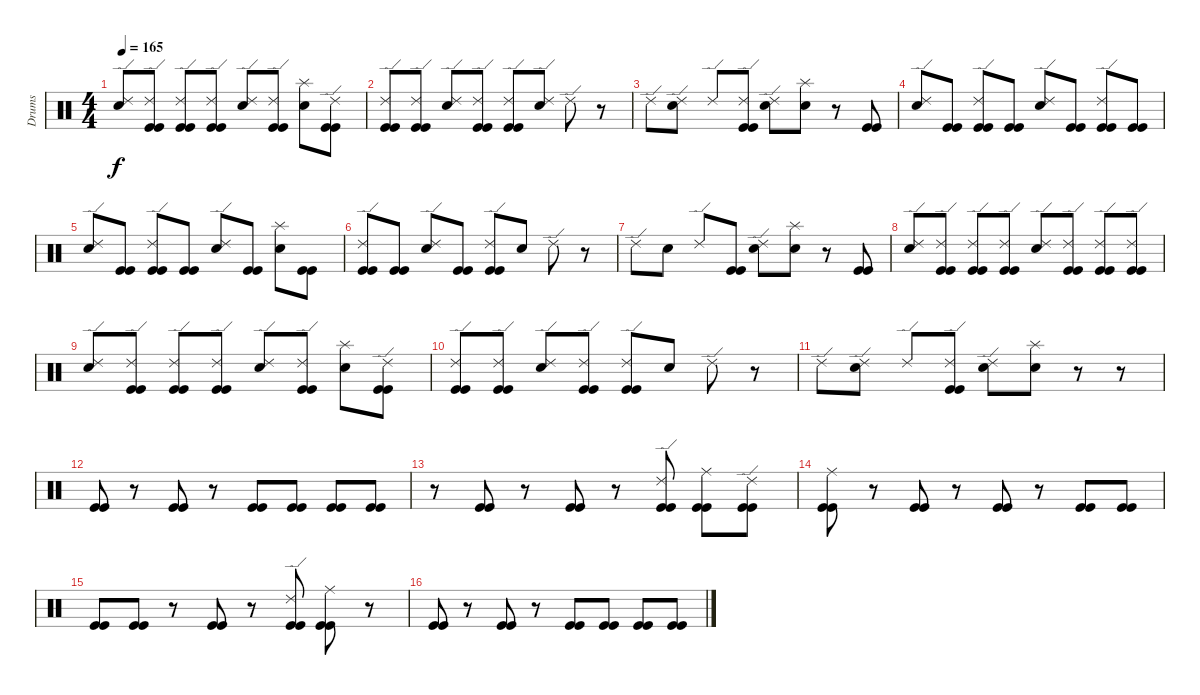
\track ("Drums" "Drums") {instrument percussion}
\staff {score}
\articulation defaults
\ts (4 4)
\tempo 165
\clef neutral
\ks c
("Ride (edge) 2" "Snare (hit) 2").8{dy f} ("Ride (edge) 2" "Kick (hit)" "Kick (hit)").8 ("Ride (edge) 2" "Kick (hit)" "Kick (hit)").8 ("Ride (edge) 2" "Kick (hit)" "Kick (hit)").8 ("Ride (edge) 2" "Snare (hit) 2").8 ("Ride (edge) 2" "Kick (hit)" "Kick (hit)").8 ("Splash (hit)" "Snare (hit) 2").8 ("Ride (edge) 2" "Kick (hit)" "Kick (hit)").8 |
("Ride (edge) 2" "Kick (hit)" "Kick (hit)").8 ("Ride (edge) 2" "Kick (hit)" "Kick (hit)").8 ("Ride (edge) 2" "Snare (hit) 2").8 ("Ride (edge) 2" "Kick (hit)" "Kick (hit)").8 ("Ride (edge) 2" "Kick (hit)" "Kick (hit)").8 ("Ride (edge) 2" "Snare (hit) 2").8 "Ride (edge) 2".8 r.8 |
"Ride (edge) 2".8 ("Ride (edge) 2" "Snare (hit) 2").8 "Ride (edge) 2".8 ("Ride (edge) 2" "Kick (hit)" "Kick (hit)").8 ("Ride (edge) 2" "Snare (hit) 2").8 ("Splash (hit)" "Snare (hit) 2").8 r.8 ("Kick (hit)" "Kick (hit)").8 |
("Ride (edge) 2" "Snare (hit) 2").8 ("Kick (hit)" "Kick (hit)").8 ("Ride (edge) 2" "Kick (hit)" "Kick (hit)").8 ("Kick (hit)" "Kick (hit)").8 ("Ride (edge) 2" "Snare (hit) 2").8 ("Kick (hit)" "Kick (hit)").8 ("Ride (edge) 2" "Kick (hit)" "Kick (hit)").8 ("Kick (hit)" "Kick (hit)").8 |
("Ride (edge) 2" "Snare (hit) 2").8 ("Kick (hit)" "Kick (hit)").8 ("Ride (edge) 2" "Kick (hit)" "Kick (hit)").8 ("Kick (hit)" "Kick (hit)").8 ("Ride (edge) 2" "Snare (hit) 2").8 ("Kick (hit)" "Kick (hit)").8 ("Splash (hit)" "Snare (hit) 2").8 ("Kick (hit)" "Kick (hit)").8 |
("Ride (edge) 2" "Kick (hit)" "Kick (hit)").8 ("Kick (hit)" "Kick (hit)").8 ("Ride (edge) 2" "Snare (hit) 2").8 ("Kick (hit)" "Kick (hit)").8 ("Ride (edge) 2" "Kick (hit)" "Kick (hit)").8 "Snare (hit) 2".8 "Ride (edge) 2".8 r.8 |
"Ride (edge) 2".8 "Snare (hit) 2".8 "Ride (edge) 2".8 ("Kick (hit)" "Kick (hit)").8 ("Ride (edge) 2" "Snare (hit) 2").8 ("Splash (hit)" "Snare (hit) 2").8 r.8 ("Kick (hit)" "Kick (hit)").8 |
("Ride (edge) 2" "Snare (hit) 2").8 ("Ride (edge) 2" "Kick (hit)" "Kick (hit)").8 ("Ride (edge) 2" "Kick (hit)" "Kick (hit)").8 ("Ride (edge) 2" "Kick (hit)" "Kick (hit)").8 ("Ride (edge) 2" "Snare (hit) 2").8 ("Ride (edge) 2" "Kick (hit)" "Kick (hit)").8 ("Ride (edge) 2" "Kick (hit)" "Kick (hit)").8 ("Ride (edge) 2" "Kick (hit)" "Kick (hit)").8 |
("Ride (edge) 2" "Snare (hit) 2").8 ("Ride (edge) 2" "Kick (hit)" "Kick (hit)").8 ("Ride (edge) 2" "Kick (hit)" "Kick (hit)").8 ("Ride (edge) 2" "Kick (hit)" "Kick (hit)").8 ("Ride (edge) 2" "Snare (hit) 2").8 ("Ride (edge) 2" "Kick (hit)" "Kick (hit)").8 ("Splash (hit)" "Snare (hit) 2").8 ("Ride (edge) 2" "Kick (hit)" "Kick (hit)").8 |
("Ride (edge) 2" "Kick (hit)" "Kick (hit)").8 ("Ride (edge) 2" "Kick (hit)" "Kick (hit)").8 ("Ride (edge) 2" "Snare (hit) 2").8 ("Ride (edge) 2" "Kick (hit)" "Kick (hit)").8 ("Ride (edge) 2" "Kick (hit)" "Kick (hit)").8 "Snare (hit) 2".8 "Ride (edge) 2".8 r.8 |
"Ride (edge) 2".8 ("Ride (edge) 2" "Snare (hit) 2").8 "Ride (edge) 2".8 ("Ride (edge) 2" "Kick (hit)" "Kick (hit)").8 ("Ride (edge) 2" "Snare (hit) 2").8 ("Splash (hit)" "Snare (hit) 2").8 r.8 r.8 |
("Kick (hit)" "Kick (hit)").8 r.8 ("Kick (hit)" "Kick (hit)").8 r.8 ("Kick (hit)" "Kick (hit)").8 ("Kick (hit)" "Kick (hit)").8 ("Kick (hit)" "Kick (hit)").8 ("Kick (hit)" "Kick (hit)").8 |
r.8 ("Kick (hit)" "Kick (hit)").8 r.8 ("Kick (hit)" "Kick (hit)").8 r.8 ("Ride (edge) 2" "Kick (hit)" "Kick (hit)").8 ("Ride (middle)" "Kick (hit)" "Kick (hit)").8 ("Ride (edge) 2" "Kick (hit)" "Kick (hit)").8 |
("Ride (middle)" "Kick (hit)" "Kick (hit)").8 r.8 ("Kick (hit)" "Kick (hit)").8 r.8 ("Kick (hit)" "Kick (hit)").8 r.8 ("Kick (hit)" "Kick (hit)").8 ("Kick (hit)" "Kick (hit)").8 |
("Kick (hit)" "Kick (hit)").8 ("Kick (hit)" "Kick (hit)").8 r.8 ("Kick (hit)" "Kick (hit)").8 r.8 ("Ride (edge) 2" "Kick (hit)" "Kick (hit)").8 ("Ride (middle)" "Kick (hit)" "Kick (hit)").8 r.8 |
("Kick (hit)" "Kick (hit)").8 r.8 ("Kick (hit)" "Kick (hit)").8 r.8 ("Kick (hit)" "Kick (hit)").8 ("Kick (hit)" "Kick (hit)").8 ("Kick (hit)" "Kick (hit)").8 ("Kick (hit)" "Kick (hit)").8
